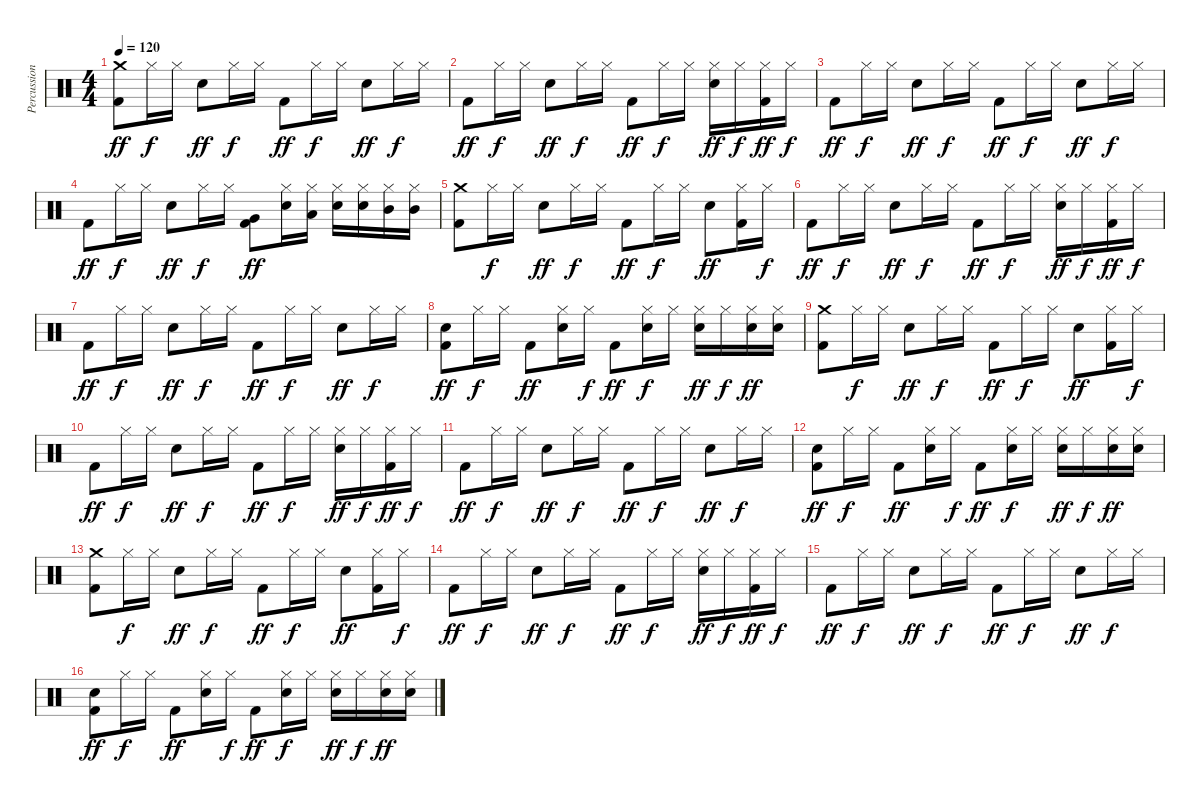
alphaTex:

\track ("Percussion" "Percussion") {instrument percussion}
\staff {score}
\articulation defaults
\ts (4 4)
\tempo 120
\clef neutral
\ks c
("Crash medium (hit)" "Kick (hit) 2").8{dy ff} "Hi-Hat (closed)".16{dy f} "Hi-Hat (closed)".16 "Electric Snare (hit)".8{dy ff} "Hi-Hat (closed)".16{dy f} "Hi-Hat (closed)".16 "Kick (hit) 2".8{dy ff} "Hi-Hat (closed)".16{dy f} "Hi-Hat (closed)".16 "Electric Snare (hit)".8{dy ff} "Hi-Hat (closed)".16{dy f} "Hi-Hat (closed)".16 |
"Kick (hit) 2".8{dy ff} "Hi-Hat (closed)".16{dy f} "Hi-Hat (closed)".16 "Electric Snare (hit)".8{dy ff} "Hi-Hat (closed)".16{dy f} "Hi-Hat (closed)".16 "Kick (hit) 2".8{dy ff} "Hi-Hat (closed)".16{dy f} "Hi-Hat (closed)".16 ("Hi-Hat (closed)" "Electric Snare (hit)").16{dy ff} "Hi-Hat (closed)".16{dy f} ("Hi-Hat (closed)" "Kick (hit) 2").16{dy ff} "Hi-Hat (closed)".16{dy f} |
"Kick (hit) 2".8{dy ff} "Hi-Hat (closed)".16{dy f} "Hi-Hat (closed)".16 "Electric Snare (hit)".8{dy ff} "Hi-Hat (closed)".16{dy f} "Hi-Hat (closed)".16 "Kick (hit) 2".8{dy ff} "Hi-Hat (closed)".16{dy f} "Hi-Hat (closed)".16 "Electric Snare (hit)".8{dy ff} "Hi-Hat (closed)".16{dy f} "Hi-Hat (closed)".16 |
"Kick (hit) 2".8{dy ff} "Hi-Hat (closed)".16{dy f} "Hi-Hat (closed)".16 "Electric Snare (hit)".8{dy ff} "Hi-Hat (closed)".16{dy f} "Hi-Hat (closed)".16 ("Very Low Tom (hit)" "Kick (hit) 2").8{dy ff} ("Hi-Hat (closed)" "Electric Snare (hit)").16 ("Hi-Hat (closed)" "Low Tom (hit)").16 ("Hi-Hat (closed)" "Electric Snare (hit)").16 ("Hi-Hat (closed)" "Electric Snare (hit)").16 ("Hi-Hat (closed)" "Mid Tom (hit)").16 ("Hi-Hat (closed)" "Mid Tom (hit)").16 |
("Crash medium (hit)" "Kick (hit) 2").8 "Hi-Hat (closed)".16{dy f} "Hi-Hat (closed)".16 "Electric Snare (hit)".8{dy ff} "Hi-Hat (closed)".16{dy f} "Hi-Hat (closed)".16 "Kick (hit) 2".8{dy ff} "Hi-Hat (closed)".16{dy f} "Hi-Hat (closed)".16 "Electric Snare (hit)".8{dy ff} ("Hi-Hat (closed)" "Kick (hit) 2").16 "Hi-Hat (closed)".16{dy f} |
"Kick (hit) 2".8{dy ff} "Hi-Hat (closed)".16{dy f} "Hi-Hat (closed)".16 "Electric Snare (hit)".8{dy ff} "Hi-Hat (closed)".16{dy f} "Hi-Hat (closed)".16 "Kick (hit) 2".8{dy ff} "Hi-Hat (closed)".16{dy f} "Hi-Hat (closed)".16 ("Hi-Hat (closed)" "Electric Snare (hit)").16{dy ff} "Hi-Hat (closed)".16{dy f} ("Hi-Hat (closed)" "Kick (hit) 2").16{dy ff} "Hi-Hat (closed)".16{dy f} |
"Kick (hit) 2".8{dy ff} "Hi-Hat (closed)".16{dy f} "Hi-Hat (closed)".16 "Electric Snare (hit)".8{dy ff} "Hi-Hat (closed)".16{dy f} "Hi-Hat (closed)".16 "Kick (hit) 2".8{dy ff} "Hi-Hat (closed)".16{dy f} "Hi-Hat (closed)".16 "Electric Snare (hit)".8{dy ff} "Hi-Hat (closed)".16{dy f} "Hi-Hat (closed)".16 |
("Electric Snare (hit)" "Kick (hit) 2").8{dy ff} "Hi-Hat (closed)".16{dy f} "Hi-Hat (closed)".16 "Kick (hit) 2".8{dy ff} ("Hi-Hat (closed)" "Electric Snare (hit)").16 "Hi-Hat (closed)".16{dy f} "Kick (hit) 2".8{dy ff} ("Hi-Hat (closed)" "Electric Snare (hit)").16{dy f} "Hi-Hat (closed)".16 ("Hi-Hat (closed)" "Electric Snare (hit)").16{dy ff} "Hi-Hat (closed)".16{dy f} ("Hi-Hat (closed)" "Electric Snare (hit)").16{dy ff} ("Hi-Hat (closed)" "Electric Snare (hit)").16 |
("Crash medium (hit)" "Kick (hit) 2").8 "Hi-Hat (closed)".16{dy f} "Hi-Hat (closed)".16 "Electric Snare (hit)".8{dy ff} "Hi-Hat (closed)".16{dy f} "Hi-Hat (closed)".16 "Kick (hit) 2".8{dy ff} "Hi-Hat (closed)".16{dy f} "Hi-Hat (closed)".16 "Electric Snare (hit)".8{dy ff} ("Hi-Hat (closed)" "Kick (hit) 2").16 "Hi-Hat (closed)".16{dy f} |
"Kick (hit) 2".8{dy ff} "Hi-Hat (closed)".16{dy f} "Hi-Hat (closed)".16 "Electric Snare (hit)".8{dy ff} "Hi-Hat (closed)".16{dy f} "Hi-Hat (closed)".16 "Kick (hit) 2".8{dy ff} "Hi-Hat (closed)".16{dy f} "Hi-Hat (closed)".16 ("Hi-Hat (closed)" "Electric Snare (hit)").16{dy ff} "Hi-Hat (closed)".16{dy f} ("Hi-Hat (closed)" "Kick (hit) 2").16{dy ff} "Hi-Hat (closed)".16{dy f} |
"Kick (hit) 2".8{dy ff} "Hi-Hat (closed)".16{dy f} "Hi-Hat (closed)".16 "Electric Snare (hit)".8{dy ff} "Hi-Hat (closed)".16{dy f} "Hi-Hat (closed)".16 "Kick (hit) 2".8{dy ff} "Hi-Hat (closed)".16{dy f} "Hi-Hat (closed)".16 "Electric Snare (hit)".8{dy ff} "Hi-Hat (closed)".16{dy f} "Hi-Hat (closed)".16 |
("Electric Snare (hit)" "Kick (hit) 2").8{dy ff} "Hi-Hat (closed)".16{dy f} "Hi-Hat (closed)".16 "Kick (hit) 2".8{dy ff} ("Hi-Hat (closed)" "Electric Snare (hit)").16 "Hi-Hat (closed)".16{dy f} "Kick (hit) 2".8{dy ff} ("Hi-Hat (closed)" "Electric Snare (hit)").16{dy f} "Hi-Hat (closed)".16 ("Hi-Hat (closed)" "Electric Snare (hit)").16{dy ff} "Hi-Hat (closed)".16{dy f} ("Hi-Hat (closed)" "Electric Snare (hit)").16{dy ff} ("Hi-Hat (closed)" "Electric Snare (hit)").16 |
("Crash medium (hit)" "Kick (hit) 2").8 "Hi-Hat (closed)".16{dy f} "Hi-Hat (closed)".16 "Electric Snare (hit)".8{dy ff} "Hi-Hat (closed)".16{dy f} "Hi-Hat (closed)".16 "Kick (hit) 2".8{dy ff} "Hi-Hat (closed)".16{dy f} "Hi-Hat (closed)".16 "Electric Snare (hit)".8{dy ff} ("Hi-Hat (closed)" "Kick (hit) 2").16 "Hi-Hat (closed)".16{dy f} |
"Kick (hit) 2".8{dy ff} "Hi-Hat (closed)".16{dy f} "Hi-Hat (closed)".16 "Electric Snare (hit)".8{dy ff} "Hi-Hat (closed)".16{dy f} "Hi-Hat (closed)".16 "Kick (hit) 2".8{dy ff} "Hi-Hat (closed)".16{dy f} "Hi-Hat (closed)".16 ("Hi-Hat (closed)" "Electric Snare (hit)").16{dy ff} "Hi-Hat (closed)".16{dy f} ("Hi-Hat (closed)" "Kick (hit) 2").16{dy ff} "Hi-Hat (closed)".16{dy f} |
"Kick (hit) 2".8{dy ff} "Hi-Hat (closed)".16{dy f} "Hi-Hat (closed)".16 "Electric Snare (hit)".8{dy ff} "Hi-Hat (closed)".16{dy f} "Hi-Hat (closed)".16 "Kick (hit) 2".8{dy ff} "Hi-Hat (closed)".16{dy f} "Hi-Hat (closed)".16 "Electric Snare (hit)".8{dy ff} "Hi-Hat (closed)".16{dy f} "Hi-Hat (closed)".16 |
("Electric Snare (hit)" "Kick (hit) 2").8{dy ff} "Hi-Hat (closed)".16{dy f} "Hi-Hat (closed)".16 "Kick (hit) 2".8{dy ff} ("Hi-Hat (closed)" "Electric Snare (hit)").16 "Hi-Hat (closed)".16{dy f} "Kick (hit) 2".8{dy ff} ("Hi-Hat (closed)" "Electric Snare (hit)").16{dy f} "Hi-Hat (closed)".16 ("Hi-Hat (closed)" "Electric Snare (hit)").16{dy ff} "Hi-Hat (closed)".16{dy f} ("Hi-Hat (closed)" "Electric Snare (hit)").16{dy ff} ("Hi-Hat (closed)" "Electric Snare (hit)").16
